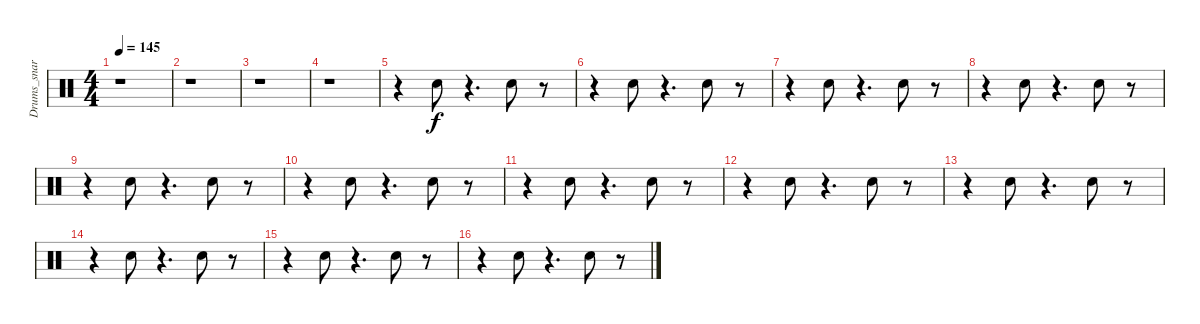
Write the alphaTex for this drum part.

\track ("Drums_snare&tom" "Drums_snar") {instrument percussion}
\staff {score}
\articulation defaults
\ts (4 4)
\tempo 145
\clef neutral
\ks c
r.1{dy f} |
r.1 |
r.1 |
r.1 |
r.4 "Electric Snare (hit)".8 r.4{d} "Electric Snare (hit)".8 r.8 |
r.4 "Electric Snare (hit)".8 r.4{d} "Electric Snare (hit)".8 r.8 |
r.4 "Electric Snare (hit)".8 r.4{d} "Electric Snare (hit)".8 r.8 |
r.4 "Electric Snare (hit)".8 r.4{d} "Electric Snare (hit)".8 r.8 |
r.4 "Electric Snare (hit)".8 r.4{d} "Electric Snare (hit)".8 r.8 |
r.4 "Electric Snare (hit)".8 r.4{d} "Electric Snare (hit)".8 r.8 |
r.4 "Electric Snare (hit)".8 r.4{d} "Electric Snare (hit)".8 r.8 |
r.4 "Electric Snare (hit)".8 r.4{d} "Electric Snare (hit)".8 r.8 |
r.4 "Electric Snare (hit)".8 r.4{d} "Electric Snare (hit)".8 r.8 |
r.4 "Electric Snare (hit)".8 r.4{d} "Electric Snare (hit)".8 r.8 |
r.4 "Electric Snare (hit)".8 r.4{d} "Electric Snare (hit)".8 r.8 |
r.4 "Electric Snare (hit)".8 r.4{d} "Electric Snare (hit)".8 r.8
